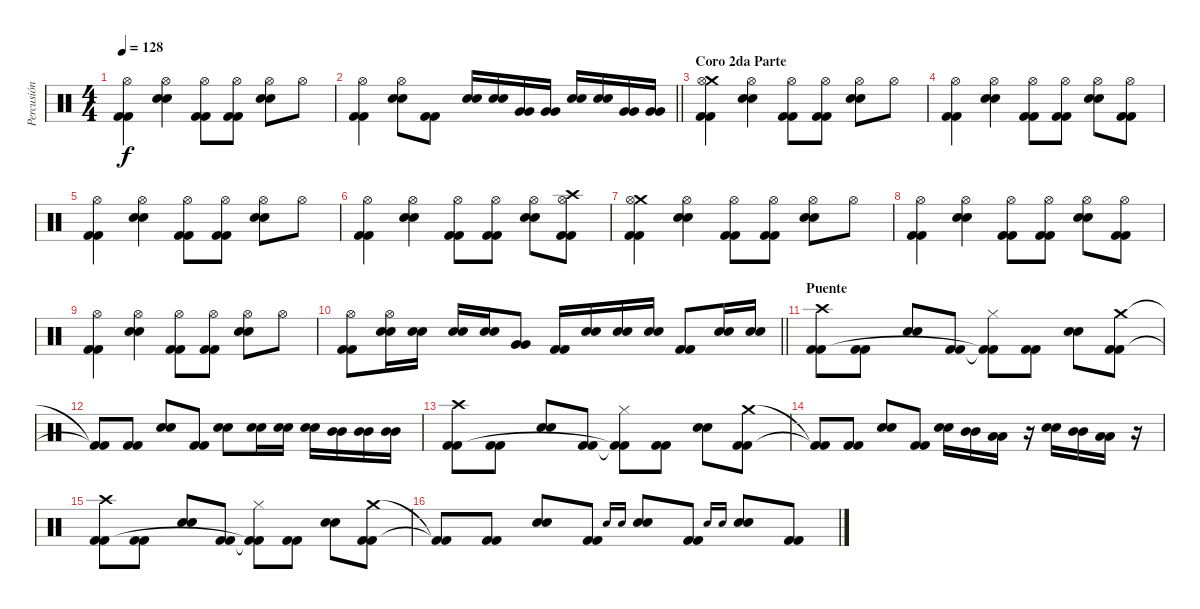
\track ("Percusión" "Percusión") {instrument percussion}
\staff {score}
\articulation defaults
\ts (4 4)
\tempo 128
\clef neutral
\ks c
("Hi-Hat (open)" "Kick (hit) 2" "Kick (hit) 2").4{dy f} ("Hi-Hat (open)" "Electric Snare (hit)" "Electric Snare (hit)").4 ("Hi-Hat (open)" "Kick (hit) 2" "Kick (hit) 2").8 ("Hi-Hat (open)" "Kick (hit) 2" "Kick (hit) 2").8 ("Hi-Hat (open)" "Electric Snare (hit)" "Electric Snare (hit)").8 "Hi-Hat (open)".8 |
\barLineRight lightlight
("Hi-Hat (open)" "Kick (hit) 2" "Kick (hit) 2").4 ("Hi-Hat (open)" "Electric Snare (hit)" "Electric Snare (hit)").8 ("Kick (hit) 2" "Kick (hit) 2").8 ("Electric Snare (hit)" "Electric Snare (hit)").16 ("Electric Snare (hit)" "Electric Snare (hit)").16 ("Very Low Tom (hit)" "Very Low Tom (hit)").16 ("Very Low Tom (hit)" "Very Low Tom (hit)").16 ("Electric Snare (hit)" "Electric Snare (hit)").16 ("Electric Snare (hit)" "Electric Snare (hit)").16 ("Very Low Tom (hit)" "Very Low Tom (hit)").16 ("Very Low Tom (hit)" "Very Low Tom (hit)").16 |
\section ("" "Coro 2da Parte")
("Crash medium (hit)" "Hi-Hat (open)" "Kick (hit) 2" "Kick (hit) 2").4 ("Hi-Hat (open)" "Electric Snare (hit)" "Electric Snare (hit)").4 ("Hi-Hat (open)" "Kick (hit) 2" "Kick (hit) 2").8 ("Hi-Hat (open)" "Kick (hit) 2" "Kick (hit) 2").8 ("Hi-Hat (open)" "Electric Snare (hit)" "Electric Snare (hit)").8 "Hi-Hat (open)".8 |
("Hi-Hat (open)" "Kick (hit) 2" "Kick (hit) 2").4 ("Hi-Hat (open)" "Electric Snare (hit)" "Electric Snare (hit)").4 ("Hi-Hat (open)" "Kick (hit) 2" "Kick (hit) 2").8 ("Hi-Hat (open)" "Kick (hit) 2" "Kick (hit) 2").8 ("Hi-Hat (open)" "Electric Snare (hit)" "Electric Snare (hit)").8 ("Hi-Hat (open)" "Kick (hit) 2" "Kick (hit) 2").8 |
("Hi-Hat (open)" "Kick (hit) 2" "Kick (hit) 2").4 ("Hi-Hat (open)" "Electric Snare (hit)" "Electric Snare (hit)").4 ("Hi-Hat (open)" "Kick (hit) 2" "Kick (hit) 2").8 ("Hi-Hat (open)" "Kick (hit) 2" "Kick (hit) 2").8 ("Hi-Hat (open)" "Electric Snare (hit)" "Electric Snare (hit)").8 "Hi-Hat (open)".8 |
("Hi-Hat (open)" "Kick (hit) 2" "Kick (hit) 2").4 ("Hi-Hat (open)" "Electric Snare (hit)" "Electric Snare (hit)").4 ("Hi-Hat (open)" "Kick (hit) 2" "Kick (hit) 2").8 ("Hi-Hat (open)" "Kick (hit) 2" "Kick (hit) 2").8 ("Hi-Hat (open)" "Electric Snare (hit)" "Electric Snare (hit)").8 ("Crash high (hit)" "Hi-Hat (open)" "Kick (hit) 2" "Kick (hit) 2").8 |
("Crash medium (hit)" "Hi-Hat (open)" "Kick (hit) 2" "Kick (hit) 2").4 ("Hi-Hat (open)" "Electric Snare (hit)" "Electric Snare (hit)").4 ("Hi-Hat (open)" "Kick (hit) 2" "Kick (hit) 2").8 ("Hi-Hat (open)" "Kick (hit) 2" "Kick (hit) 2").8 ("Hi-Hat (open)" "Electric Snare (hit)" "Electric Snare (hit)").8 "Hi-Hat (open)".8 |
("Hi-Hat (open)" "Kick (hit) 2" "Kick (hit) 2").4 ("Hi-Hat (open)" "Electric Snare (hit)" "Electric Snare (hit)").4 ("Hi-Hat (open)" "Kick (hit) 2" "Kick (hit) 2").8 ("Hi-Hat (open)" "Kick (hit) 2" "Kick (hit) 2").8 ("Hi-Hat (open)" "Electric Snare (hit)" "Electric Snare (hit)").8 ("Hi-Hat (open)" "Kick (hit) 2" "Kick (hit) 2").8 |
("Hi-Hat (open)" "Kick (hit) 2" "Kick (hit) 2").4 ("Hi-Hat (open)" "Electric Snare (hit)" "Electric Snare (hit)").4 ("Hi-Hat (open)" "Kick (hit) 2" "Kick (hit) 2").8 ("Hi-Hat (open)" "Kick (hit) 2" "Kick (hit) 2").8 ("Hi-Hat (open)" "Electric Snare (hit)" "Electric Snare (hit)").8 "Hi-Hat (open)".8 |
\barLineRight lightlight
("Hi-Hat (open)" "Kick (hit) 2" "Kick (hit) 2").8 ("Hi-Hat (open)" "Electric Snare (hit)" "Electric Snare (hit)").16 ("Electric Snare (hit)" "Electric Snare (hit)").16 ("Electric Snare (hit)" "Electric Snare (hit)").16 ("Electric Snare (hit)" "Electric Snare (hit)").16 ("Very Low Tom (hit)" "Very Low Tom (hit)").8 ("Kick (hit) 2" "Kick (hit) 2").16 ("Electric Snare (hit)" "Electric Snare (hit)").16 ("Electric Snare (hit)" "Electric Snare (hit)").16 ("Electric Snare (hit)" "Electric Snare (hit)").16 ("Kick (hit) 2" "Kick (hit) 2").8 ("Electric Snare (hit)" "Electric Snare (hit)").16 ("Electric Snare (hit)" "Electric Snare (hit)").16 |
\section ("" "Puente")
("Crash high (hit)" "Kick (hit) 2" "Kick (hit) 2").8 ("Kick (hit) 2" "Kick (hit) 2").8 ("Electric Snare (hit)" "Electric Snare (hit)").8 ("Kick (hit) 2" "Kick (hit) 2").8 ("Hi-Hat (closed)" "Kick (hit) 2"{t} "Kick (hit) 2"{t}).8 ("Kick (hit) 2" "Kick (hit) 2").8 ("Electric Snare (hit)" "Electric Snare (hit)").8 ("Crash medium (hit)" "Kick (hit) 2" "Kick (hit) 2").8 |
("Kick (hit) 2"{t} "Kick (hit) 2"{t}).8 ("Kick (hit) 2" "Kick (hit) 2").8 ("Electric Snare (hit)" "Electric Snare (hit)").8 ("Kick (hit) 2" "Kick (hit) 2").8 ("Electric Snare (hit)" "Electric Snare (hit)").8 ("Electric Snare (hit)" "Electric Snare (hit)").16 ("Electric Snare (hit)" "Electric Snare (hit)").16 ("Electric Snare (hit)" "Electric Snare (hit)").16 ("Mid Tom (hit)" "Mid Tom (hit)").16 ("Mid Tom (hit)" "Mid Tom (hit)").16 ("Mid Tom (hit)" "Mid Tom (hit)").16 |
("Crash high (hit)" "Kick (hit) 2" "Kick (hit) 2").8 ("Kick (hit) 2" "Kick (hit) 2").8 ("Electric Snare (hit)" "Electric Snare (hit)").8 ("Kick (hit) 2" "Kick (hit) 2").8 ("Hi-Hat (closed)" "Kick (hit) 2"{t} "Kick (hit) 2"{t}).8 ("Kick (hit) 2" "Kick (hit) 2").8 ("Electric Snare (hit)" "Electric Snare (hit)").8 ("Crash medium (hit)" "Kick (hit) 2" "Kick (hit) 2").8 |
("Kick (hit) 2"{t} "Kick (hit) 2"{t}).8 ("Kick (hit) 2" "Kick (hit) 2").8 ("Electric Snare (hit)" "Electric Snare (hit)").8 ("Kick (hit) 2" "Kick (hit) 2").8 ("Electric Snare (hit)" "Electric Snare (hit)").16 ("Mid Tom (hit)" "Mid Tom (hit)").16 ("Low Tom (hit)" "Low Tom (hit)").16 r.16 ("Electric Snare (hit)" "Electric Snare (hit)").16 ("Mid Tom (hit)" "Mid Tom (hit)").16 ("Low Tom (hit)" "Low Tom (hit)").16 r.16 |
("Crash high (hit)" "Kick (hit) 2" "Kick (hit) 2").8 ("Kick (hit) 2" "Kick (hit) 2").8 ("Electric Snare (hit)" "Electric Snare (hit)").8 ("Kick (hit) 2" "Kick (hit) 2").8 ("Hi-Hat (closed)" "Kick (hit) 2"{t} "Kick (hit) 2"{t}).8 ("Kick (hit) 2" "Kick (hit) 2").8 ("Electric Snare (hit)" "Electric Snare (hit)").8 ("Crash medium (hit)" "Kick (hit) 2" "Kick (hit) 2").8 |
("Kick (hit) 2"{t} "Kick (hit) 2"{t}).8 ("Kick (hit) 2" "Kick (hit) 2").8 ("Electric Snare (hit)" "Electric Snare (hit)").8 ("Kick (hit) 2" "Kick (hit) 2").8 "Electric Snare (hit)".16{gr onbeat} "Electric Snare (hit)".16{gr onbeat} ("Electric Snare (hit)" "Electric Snare (hit)").8 ("Kick (hit) 2" "Kick (hit) 2").8 "Electric Snare (hit)".16{gr onbeat} "Electric Snare (hit)".16{gr onbeat} ("Electric Snare (hit)" "Electric Snare (hit)").8 ("Kick (hit) 2" "Kick (hit) 2").8
